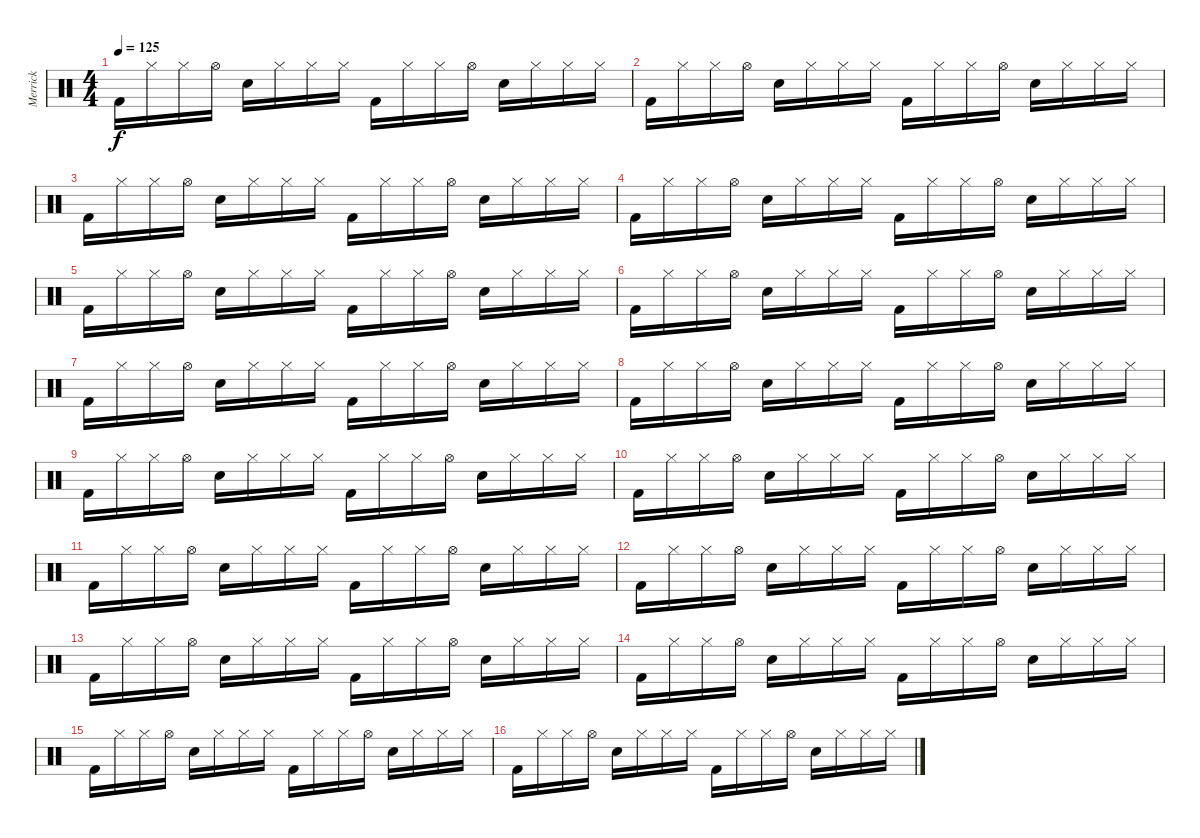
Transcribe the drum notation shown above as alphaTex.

\track ("Merrick " "Merrick ") {instrument percussion}
\staff {score}
\articulation defaults
\ts (4 4)
\tempo 125
\clef neutral
\ks c "Kick (hit) 2".16{dy f} "Hi-Hat (closed)".16 "Hi-Hat (closed)".16 "Hi-Hat (open)".16 "Electric Snare (hit)".16 "Hi-Hat (closed)".16 "Hi-Hat (closed)".16 "Hi-Hat (closed)".16 "Kick (hit) 2".16 "Hi-Hat (closed)".16 "Hi-Hat (closed)".16 "Hi-Hat (open)".16 "Electric Snare (hit)".16 "Hi-Hat (closed)".16 "Hi-Hat (closed)".16 "Hi-Hat (closed)".16
|
"Kick (hit) 2".16 "Hi-Hat (closed)".16 "Hi-Hat (closed)".16 "Hi-Hat (open)".16 "Electric Snare (hit)".16 "Hi-Hat (closed)".16 "Hi-Hat (closed)".16 "Hi-Hat (closed)".16 "Kick (hit) 2".16 "Hi-Hat (closed)".16 "Hi-Hat (closed)".16 "Hi-Hat (open)".16 "Electric Snare (hit)".16 "Hi-Hat (closed)".16 "Hi-Hat (closed)".16 "Hi-Hat (closed)".16 |
"Kick (hit) 2".16 "Hi-Hat (closed)".16 "Hi-Hat (closed)".16 "Hi-Hat (open)".16 "Electric Snare (hit)".16 "Hi-Hat (closed)".16 "Hi-Hat (closed)".16 "Hi-Hat (closed)".16 "Kick (hit) 2".16 "Hi-Hat (closed)".16 "Hi-Hat (closed)".16 "Hi-Hat (open)".16 "Electric Snare (hit)".16 "Hi-Hat (closed)".16 "Hi-Hat (closed)".16 "Hi-Hat (closed)".16 |
"Kick (hit) 2".16 "Hi-Hat (closed)".16 "Hi-Hat (closed)".16 "Hi-Hat (open)".16 "Electric Snare (hit)".16 "Hi-Hat (closed)".16 "Hi-Hat (closed)".16 "Hi-Hat (closed)".16 "Kick (hit) 2".16 "Hi-Hat (closed)".16 "Hi-Hat (closed)".16 "Hi-Hat (open)".16 "Electric Snare (hit)".16 "Hi-Hat (closed)".16 "Hi-Hat (closed)".16 "Hi-Hat (closed)".16 |
"Kick (hit) 2".16 "Hi-Hat (closed)".16 "Hi-Hat (closed)".16 "Hi-Hat (open)".16 "Electric Snare (hit)".16 "Hi-Hat (closed)".16 "Hi-Hat (closed)".16 "Hi-Hat (closed)".16 "Kick (hit) 2".16 "Hi-Hat (closed)".16 "Hi-Hat (closed)".16 "Hi-Hat (open)".16 "Electric Snare (hit)".16 "Hi-Hat (closed)".16 "Hi-Hat (closed)".16 "Hi-Hat (closed)".16 |
"Kick (hit) 2".16 "Hi-Hat (closed)".16 "Hi-Hat (closed)".16 "Hi-Hat (open)".16 "Electric Snare (hit)".16 "Hi-Hat (closed)".16 "Hi-Hat (closed)".16 "Hi-Hat (closed)".16 "Kick (hit) 2".16 "Hi-Hat (closed)".16 "Hi-Hat (closed)".16 "Hi-Hat (open)".16 "Electric Snare (hit)".16 "Hi-Hat (closed)".16 "Hi-Hat (closed)".16 "Hi-Hat (closed)".16 |
"Kick (hit) 2".16 "Hi-Hat (closed)".16 "Hi-Hat (closed)".16 "Hi-Hat (open)".16 "Electric Snare (hit)".16 "Hi-Hat (closed)".16 "Hi-Hat (closed)".16 "Hi-Hat (closed)".16 "Kick (hit) 2".16 "Hi-Hat (closed)".16 "Hi-Hat (closed)".16 "Hi-Hat (open)".16 "Electric Snare (hit)".16 "Hi-Hat (closed)".16 "Hi-Hat (closed)".16 "Hi-Hat (closed)".16 |
"Kick (hit) 2".16 "Hi-Hat (closed)".16 "Hi-Hat (closed)".16 "Hi-Hat (open)".16 "Electric Snare (hit)".16 "Hi-Hat (closed)".16 "Hi-Hat (closed)".16 "Hi-Hat (closed)".16 "Kick (hit) 2".16 "Hi-Hat (closed)".16 "Hi-Hat (closed)".16 "Hi-Hat (open)".16 "Electric Snare (hit)".16 "Hi-Hat (closed)".16 "Hi-Hat (closed)".16 "Hi-Hat (closed)".16 |
"Kick (hit) 2".16 "Hi-Hat (closed)".16 "Hi-Hat (closed)".16 "Hi-Hat (open)".16 "Electric Snare (hit)".16 "Hi-Hat (closed)".16 "Hi-Hat (closed)".16 "Hi-Hat (closed)".16 "Kick (hit) 2".16 "Hi-Hat (closed)".16 "Hi-Hat (closed)".16 "Hi-Hat (open)".16 "Electric Snare (hit)".16 "Hi-Hat (closed)".16 "Hi-Hat (closed)".16 "Hi-Hat (closed)".16 |
"Kick (hit) 2".16 "Hi-Hat (closed)".16 "Hi-Hat (closed)".16 "Hi-Hat (open)".16 "Electric Snare (hit)".16 "Hi-Hat (closed)".16 "Hi-Hat (closed)".16 "Hi-Hat (closed)".16 "Kick (hit) 2".16 "Hi-Hat (closed)".16 "Hi-Hat (closed)".16 "Hi-Hat (open)".16 "Electric Snare (hit)".16 "Hi-Hat (closed)".16 "Hi-Hat (closed)".16 "Hi-Hat (closed)".16 |
"Kick (hit) 2".16 "Hi-Hat (closed)".16 "Hi-Hat (closed)".16 "Hi-Hat (open)".16 "Electric Snare (hit)".16 "Hi-Hat (closed)".16 "Hi-Hat (closed)".16 "Hi-Hat (closed)".16 "Kick (hit) 2".16 "Hi-Hat (closed)".16 "Hi-Hat (closed)".16 "Hi-Hat (open)".16 "Electric Snare (hit)".16 "Hi-Hat (closed)".16 "Hi-Hat (closed)".16 "Hi-Hat (closed)".16 |
"Kick (hit) 2".16 "Hi-Hat (closed)".16 "Hi-Hat (closed)".16 "Hi-Hat (open)".16 "Electric Snare (hit)".16 "Hi-Hat (closed)".16 "Hi-Hat (closed)".16 "Hi-Hat (closed)".16 "Kick (hit) 2".16 "Hi-Hat (closed)".16 "Hi-Hat (closed)".16 "Hi-Hat (open)".16 "Electric Snare (hit)".16 "Hi-Hat (closed)".16 "Hi-Hat (closed)".16 "Hi-Hat (closed)".16 |
"Kick (hit) 2".16 "Hi-Hat (closed)".16 "Hi-Hat (closed)".16 "Hi-Hat (open)".16 "Electric Snare (hit)".16 "Hi-Hat (closed)".16 "Hi-Hat (closed)".16 "Hi-Hat (closed)".16 "Kick (hit) 2".16 "Hi-Hat (closed)".16 "Hi-Hat (closed)".16 "Hi-Hat (open)".16 "Electric Snare (hit)".16 "Hi-Hat (closed)".16 "Hi-Hat (closed)".16 "Hi-Hat (closed)".16 |
"Kick (hit) 2".16 "Hi-Hat (closed)".16 "Hi-Hat (closed)".16 "Hi-Hat (open)".16 "Electric Snare (hit)".16 "Hi-Hat (closed)".16 "Hi-Hat (closed)".16 "Hi-Hat (closed)".16 "Kick (hit) 2".16 "Hi-Hat (closed)".16 "Hi-Hat (closed)".16 "Hi-Hat (open)".16 "Electric Snare (hit)".16 "Hi-Hat (closed)".16 "Hi-Hat (closed)".16 "Hi-Hat (closed)".16 |
"Kick (hit) 2".16 "Hi-Hat (closed)".16 "Hi-Hat (closed)".16 "Hi-Hat (open)".16 "Electric Snare (hit)".16 "Hi-Hat (closed)".16 "Hi-Hat (closed)".16 "Hi-Hat (closed)".16 "Kick (hit) 2".16 "Hi-Hat (closed)".16 "Hi-Hat (closed)".16 "Hi-Hat (open)".16 "Electric Snare (hit)".16 "Hi-Hat (closed)".16 "Hi-Hat (closed)".16 "Hi-Hat (closed)".16 |
"Kick (hit) 2".16 "Hi-Hat (closed)".16 "Hi-Hat (closed)".16 "Hi-Hat (open)".16 "Electric Snare (hit)".16 "Hi-Hat (closed)".16 "Hi-Hat (closed)".16 "Hi-Hat (closed)".16 "Kick (hit) 2".16 "Hi-Hat (closed)".16 "Hi-Hat (closed)".16 "Hi-Hat (open)".16 "Electric Snare (hit)".16 "Hi-Hat (closed)".16 "Hi-Hat (closed)".16 "Hi-Hat (closed)".16
